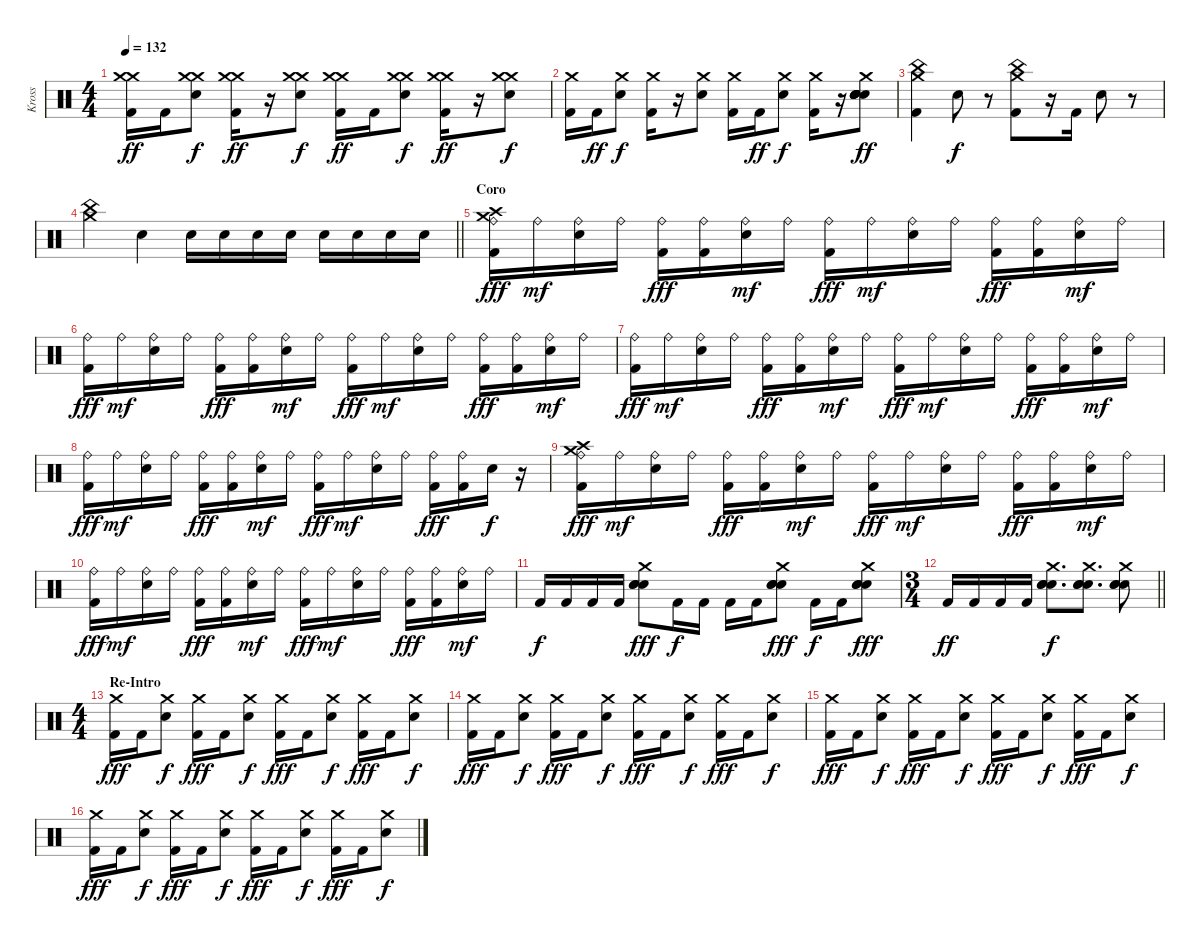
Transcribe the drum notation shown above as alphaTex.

\track ("Kross" "Kross") {instrument percussion}
\staff {score}
\articulation defaults
\ts (4 4)
\tempo 132
\clef neutral
\ks c
("Kick (hit) 2" "Crash medium (hit)" "Crash medium (hit)").16{dy ff} "Kick (hit) 2".16 ("Crash medium (hit)" "Crash medium (hit)" "Electric Snare (hit)").8{dy f} ("Kick (hit) 2" "Crash medium (hit)" "Crash medium (hit)").16{dy ff} r.16 ("Crash medium (hit)" "Crash medium (hit)" "Electric Snare (hit)").8{dy f} ("Kick (hit) 2" "Crash medium (hit)" "Crash medium (hit)").16{dy ff} "Kick (hit) 2".16 ("Crash medium (hit)" "Crash medium (hit)" "Electric Snare (hit)").8{dy f} ("Kick (hit) 2" "Crash medium (hit)" "Crash medium (hit)").16{dy ff} r.16 ("Crash medium (hit)" "Crash medium (hit)" "Electric Snare (hit)").8{dy f} |
("Kick (hit) 2" "Crash medium (hit)").16 "Kick (hit) 2".16{dy ff} ("Crash medium (hit)" "Electric Snare (hit)").8{dy f} ("Kick (hit) 2" "Crash medium (hit)").16 r.16 ("Crash medium (hit)" "Electric Snare (hit)").8 ("Kick (hit) 2" "Crash medium (hit)").16 "Kick (hit) 2".16{dy ff} ("Crash medium (hit)" "Electric Snare (hit)").8{dy f} ("Kick (hit) 2" "Crash medium (hit)").16 r.16 ("Electric Snare (hit)" "Electric Snare (hit)" "Electric Snare (hit)" "Electric Snare (hit)" "Crash medium (hit)" "Electric Snare (hit)").8{dy ff} |
("Kick (hit) 2" "China (hit)" "Crash medium (hit)").4 "Snare (hit) 2".8{dy f} r.8 ("Crash medium (hit)" "China (hit)" "Kick (hit) 2").8 r.16 "Kick (hit) 2".16 "Snare (hit) 2".8 r.8 |
\barLineRight lightlight
("China (hit)" "Crash medium (hit)").4 "Snare (hit) 2".4 "Snare (hit) 2".16 "Snare (hit) 2".16 "Snare (hit) 2".16 "Snare (hit) 2".16 "Snare (hit) 2".16 "Snare (hit) 2".16 "Snare (hit) 2".16 "Snare (hit) 2".16 |
\section ("" "Coro")
("Crash high (hit)" "Crash medium (hit)" "Ride (bell)" "Kick (hit) 2").16{dy fff} "Ride (bell)".16{dy mf} ("Ride (bell)" "Electric Snare (hit)").16 "Ride (bell)".16 ("Ride (bell)" "Kick (hit) 2").16{dy fff} ("Ride (bell)" "Kick (hit) 2").16 ("Ride (bell)" "Electric Snare (hit)").16{dy mf} "Ride (bell)".16 ("Ride (bell)" "Kick (hit) 2").16{dy fff} "Ride (bell)".16{dy mf} ("Ride (bell)" "Electric Snare (hit)").16 "Ride (bell)".16 ("Ride (bell)" "Kick (hit) 2").16{dy fff} ("Ride (bell)" "Kick (hit) 2").16 ("Ride (bell)" "Electric Snare (hit)").16{dy mf} "Ride (bell)".16 |
("Ride (bell)" "Kick (hit) 2").16{dy fff} "Ride (bell)".16{dy mf} ("Ride (bell)" "Electric Snare (hit)").16 "Ride (bell)".16 ("Ride (bell)" "Kick (hit) 2").16{dy fff} ("Ride (bell)" "Kick (hit) 2").16 ("Ride (bell)" "Electric Snare (hit)").16{dy mf} "Ride (bell)".16 ("Ride (bell)" "Kick (hit) 2").16{dy fff} "Ride (bell)".16{dy mf} ("Ride (bell)" "Electric Snare (hit)").16 "Ride (bell)".16 ("Ride (bell)" "Kick (hit) 2").16{dy fff} ("Ride (bell)" "Kick (hit) 2").16 ("Ride (bell)" "Electric Snare (hit)").16{dy mf} "Ride (bell)".16 |
("Ride (bell)" "Kick (hit) 2").16{dy fff} "Ride (bell)".16{dy mf} ("Ride (bell)" "Electric Snare (hit)").16 "Ride (bell)".16 ("Ride (bell)" "Kick (hit) 2").16{dy fff} ("Ride (bell)" "Kick (hit) 2").16 ("Ride (bell)" "Electric Snare (hit)").16{dy mf} "Ride (bell)".16 ("Ride (bell)" "Kick (hit) 2").16{dy fff} "Ride (bell)".16{dy mf} ("Ride (bell)" "Electric Snare (hit)").16 "Ride (bell)".16 ("Ride (bell)" "Kick (hit) 2").16{dy fff} ("Ride (bell)" "Kick (hit) 2").16 ("Ride (bell)" "Electric Snare (hit)").16{dy mf} "Ride (bell)".16 |
("Ride (bell)" "Kick (hit) 2").16{dy fff} "Ride (bell)".16{dy mf} ("Ride (bell)" "Electric Snare (hit)").16 "Ride (bell)".16 ("Ride (bell)" "Kick (hit) 2").16{dy fff} ("Ride (bell)" "Kick (hit) 2").16 ("Ride (bell)" "Electric Snare (hit)").16{dy mf} "Ride (bell)".16 ("Ride (bell)" "Kick (hit) 2").16{dy fff} "Ride (bell)".16{dy mf} ("Ride (bell)" "Electric Snare (hit)").16 "Ride (bell)".16 ("Ride (bell)" "Kick (hit) 2").16{dy fff} ("Ride (bell)" "Kick (hit) 2").16 "Electric Snare (hit)".16{dy f} r.16 |
("Crash high (hit)" "Crash medium (hit)" "Ride (bell)" "Kick (hit) 2").16{dy fff} "Ride (bell)".16{dy mf} ("Ride (bell)" "Electric Snare (hit)").16 "Ride (bell)".16 ("Ride (bell)" "Kick (hit) 2").16{dy fff} ("Ride (bell)" "Kick (hit) 2").16 ("Ride (bell)" "Electric Snare (hit)").16{dy mf} "Ride (bell)".16 ("Ride (bell)" "Kick (hit) 2").16{dy fff} "Ride (bell)".16{dy mf} ("Ride (bell)" "Electric Snare (hit)").16 "Ride (bell)".16 ("Ride (bell)" "Kick (hit) 2").16{dy fff} ("Ride (bell)" "Kick (hit) 2").16 ("Ride (bell)" "Electric Snare (hit)").16{dy mf} "Ride (bell)".16 |
("Ride (bell)" "Kick (hit) 2").16{dy fff} "Ride (bell)".16{dy mf} ("Ride (bell)" "Electric Snare (hit)").16 "Ride (bell)".16 ("Ride (bell)" "Kick (hit) 2").16{dy fff} ("Ride (bell)" "Kick (hit) 2").16 ("Ride (bell)" "Electric Snare (hit)").16{dy mf} "Ride (bell)".16 ("Ride (bell)" "Kick (hit) 2").16{dy fff} "Ride (bell)".16{dy mf} ("Ride (bell)" "Electric Snare (hit)").16 "Ride (bell)".16 ("Ride (bell)" "Kick (hit) 2").16{dy fff} ("Ride (bell)" "Kick (hit) 2").16 ("Ride (bell)" "Electric Snare (hit)").16{dy mf} "Ride (bell)".16 |
"Kick (hit) 2".16{dy f} "Kick (hit) 2".16 "Kick (hit) 2".16 "Kick (hit) 2".16 ("Crash medium (hit)" "Electric Snare (hit)" "Electric Snare (hit)" "Electric Snare (hit)").8{dy fff} "Kick (hit) 2".16{dy f} "Kick (hit) 2".16 "Kick (hit) 2".16 "Kick (hit) 2".16 ("Crash medium (hit)" "Electric Snare (hit)" "Electric Snare (hit)" "Electric Snare (hit)").8{dy fff} "Kick (hit) 2".16{dy f} "Kick (hit) 2".16 ("Crash medium (hit)" "Electric Snare (hit)" "Electric Snare (hit)" "Electric Snare (hit)").8{dy fff} |
\ts (3 4)
\barLineRight lightlight "Kick (hit) 2".16{dy ff} "Kick (hit) 2".16 "Kick (hit) 2".16 "Kick (hit) 2".16
("Crash medium (hit)" "Electric Snare (hit)" "Electric Snare (hit)" "Electric Snare (hit)").8{d dy f} ("Crash medium (hit)" "Electric Snare (hit)" "Electric Snare (hit)" "Electric Snare (hit)").8{d} ("Crash medium (hit)" "Electric Snare (hit)" "Electric Snare (hit)" "Electric Snare (hit)").8 |
\ts (4 4)
\section ("" "Re-Intro")
("Kick (hit) 2" "Crash medium (hit)").16{dy fff} "Kick (hit) 2".16 ("Crash medium (hit)" "Electric Snare (hit)").8{dy f} ("Kick (hit) 2" "Crash medium (hit)").16{dy fff} "Kick (hit) 2".16 ("Crash medium (hit)" "Electric Snare (hit)").8{dy f} ("Kick (hit) 2" "Crash medium (hit)").16{dy fff} "Kick (hit) 2".16 ("Crash medium (hit)" "Electric Snare (hit)").8{dy f} ("Kick (hit) 2" "Crash medium (hit)").16{dy fff} "Kick (hit) 2".16 ("Crash medium (hit)" "Electric Snare (hit)").8{dy f} |
("Kick (hit) 2" "Crash medium (hit)").16{dy fff} "Kick (hit) 2".16 ("Crash medium (hit)" "Electric Snare (hit)").8{dy f} ("Kick (hit) 2" "Crash medium (hit)").16{dy fff} "Kick (hit) 2".16 ("Crash medium (hit)" "Electric Snare (hit)").8{dy f} ("Kick (hit) 2" "Crash medium (hit)").16{dy fff} "Kick (hit) 2".16 ("Crash medium (hit)" "Electric Snare (hit)").8{dy f} ("Kick (hit) 2" "Crash medium (hit)").16{dy fff} "Kick (hit) 2".16 ("Crash medium (hit)" "Electric Snare (hit)").8{dy f} |
("Kick (hit) 2" "Crash medium (hit)").16{dy fff} "Kick (hit) 2".16 ("Crash medium (hit)" "Electric Snare (hit)").8{dy f} ("Kick (hit) 2" "Crash medium (hit)").16{dy fff} "Kick (hit) 2".16 ("Crash medium (hit)" "Electric Snare (hit)").8{dy f} ("Kick (hit) 2" "Crash medium (hit)").16{dy fff} "Kick (hit) 2".16 ("Crash medium (hit)" "Electric Snare (hit)").8{dy f} ("Kick (hit) 2" "Crash medium (hit)").16{dy fff} "Kick (hit) 2".16 ("Crash medium (hit)" "Electric Snare (hit)").8{dy f} |
("Kick (hit) 2" "Crash medium (hit)").16{dy fff} "Kick (hit) 2".16 ("Crash medium (hit)" "Electric Snare (hit)").8{dy f} ("Kick (hit) 2" "Crash medium (hit)").16{dy fff} "Kick (hit) 2".16 ("Crash medium (hit)" "Electric Snare (hit)").8{dy f} ("Kick (hit) 2" "Crash medium (hit)").16{dy fff} "Kick (hit) 2".16 ("Crash medium (hit)" "Electric Snare (hit)").8{dy f} ("Kick (hit) 2" "Crash medium (hit)").16{dy fff} "Kick (hit) 2".16 ("Crash medium (hit)" "Electric Snare (hit)").8{dy f}
